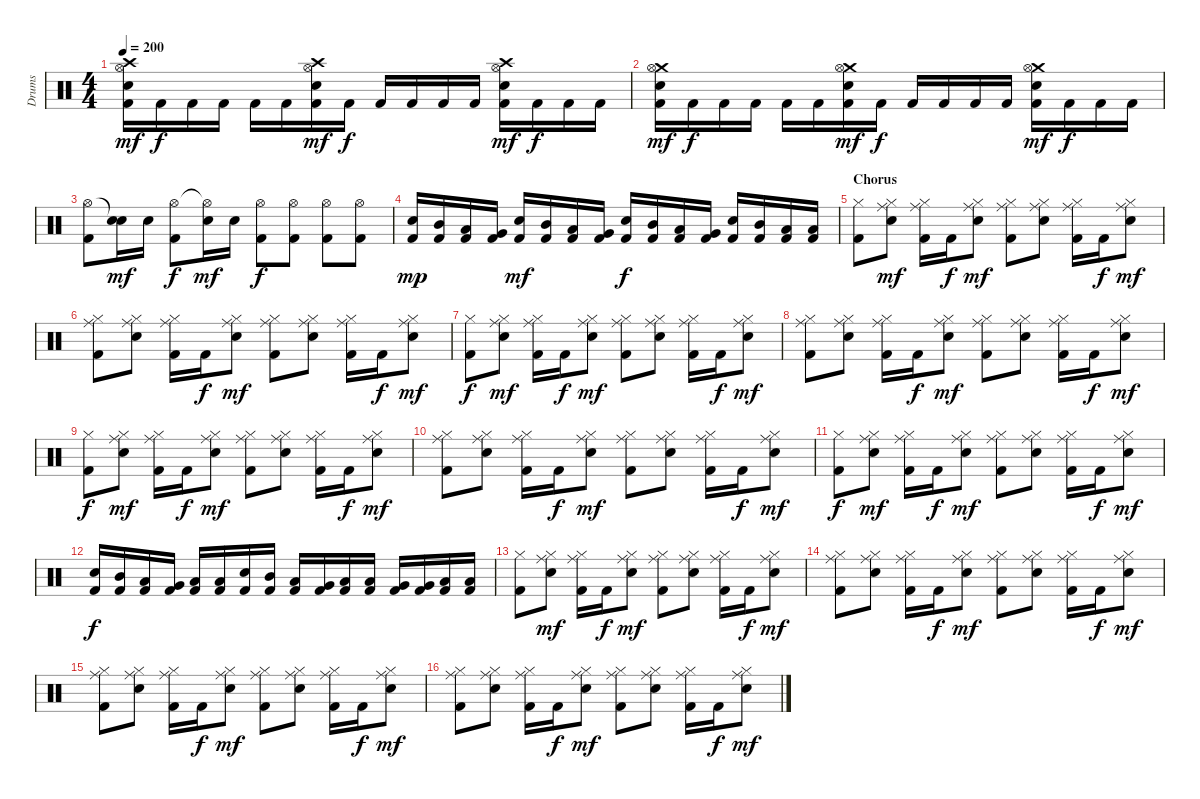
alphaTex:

\track ("Drums" "Drums") {instrument percussion}
\staff {score}
\articulation defaults
\ts (4 4)
\tempo 200
\clef neutral
\ks c
("Crash high (hit)" "Hi-Hat (open)" "Snare (hit) 2" "Kick (hit) 2").16{dy mf} "Kick (hit) 2".16{dy f} "Kick (hit) 2".16 "Kick (hit) 2".16 "Kick (hit) 2".16 "Kick (hit) 2".16 ("Crash high (hit)" "Hi-Hat (open)" "Snare (hit) 2" "Kick (hit) 2").16{dy mf} "Kick (hit) 2".16{dy f} "Kick (hit) 2".16 "Kick (hit) 2".16 "Kick (hit) 2".16 "Kick (hit) 2".16 ("Crash high (hit)" "Hi-Hat (open)" "Snare (hit) 2" "Kick (hit) 2").16{dy mf} "Kick (hit) 2".16{dy f} "Kick (hit) 2".16 "Kick (hit) 2".16 |
("Crash medium (hit)" "Hi-Hat (open)" "Snare (hit) 2" "Kick (hit) 2").16{dy mf} "Kick (hit) 2".16{dy f} "Kick (hit) 2".16 "Kick (hit) 2".16 "Kick (hit) 2".16 "Kick (hit) 2".16 ("Crash medium (hit)" "Hi-Hat (open)" "Snare (hit) 2" "Kick (hit) 2").16{dy mf} "Kick (hit) 2".16{dy f} "Kick (hit) 2".16 "Kick (hit) 2".16 "Kick (hit) 2".16 "Kick (hit) 2".16 ("Crash medium (hit)" "Hi-Hat (open)" "Snare (hit) 2" "Kick (hit) 2").16{dy mf} "Kick (hit) 2".16{dy f} "Kick (hit) 2".16 "Kick (hit) 2".16 |
("Hi-Hat (open)" "Kick (hit) 2").8 ("Snare (hit)"{t} "Snare (hit) 2").16{dy mf} "Snare (hit) 2".16 ("Hi-Hat (open)" "Kick (hit) 2").8{dy f} ("Hi-Hat (open)"{t} "Snare (hit) 2").16{dy mf} "Snare (hit) 2".16 ("Hi-Hat (open)" "Kick (hit) 2").8{dy f} ("Hi-Hat (open)" "Kick (hit) 2").8 ("Hi-Hat (open)" "Kick (hit) 2").8 ("Hi-Hat (open)" "Kick (hit) 2").8 |
("Snare (hit) 2" "Kick (hit) 2").16{dy mp} ("Mid Tom (hit)" "Kick (hit) 2").16 ("Low Tom (hit)" "Kick (hit) 2").16 ("Very Low Tom (hit)" "Kick (hit) 2").16 ("Snare (hit) 2" "Kick (hit) 2").16{dy mf} ("Mid Tom (hit)" "Kick (hit) 2").16 ("Low Tom (hit)" "Kick (hit) 2").16 ("Very Low Tom (hit)" "Kick (hit) 2").16 ("Snare (hit) 2" "Kick (hit) 2").16{dy f} ("Mid Tom (hit)" "Kick (hit) 2").16 ("Low Tom (hit)" "Kick (hit) 2").16 ("Very Low Tom (hit)" "Kick (hit) 2").16 ("Snare (hit) 2" "Kick (hit) 2").16 ("Mid Tom (hit)" "Kick (hit) 2").16 ("Low Tom (hit)" "Kick (hit) 2").16 ("Low Floor Tom (hit)" "Kick (hit) 2").16 |
\section ("" "Chorus")
("Hi-Hat (closed)" "Kick (hit) 2").8 ("Hi-Hat (closed)" "Ride (middle)" "Snare (hit) 2").8{dy mf} ("Hi-Hat (closed)" "Ride (middle)" "Kick (hit) 2").16 "Kick (hit) 2".16{dy f} ("Hi-Hat (closed)" "Ride (middle)" "Snare (hit) 2").8{dy mf} ("Hi-Hat (closed)" "Ride (middle)" "Kick (hit) 2").8 ("Hi-Hat (closed)" "Ride (middle)" "Snare (hit) 2").8 ("Hi-Hat (closed)" "Ride (middle)" "Kick (hit) 2").16 "Kick (hit) 2".16{dy f} ("Hi-Hat (closed)" "Ride (middle)" "Snare (hit) 2").8{dy mf} |
("Hi-Hat (closed)" "Ride (middle)" "Kick (hit) 2").8 ("Hi-Hat (closed)" "Ride (middle)" "Snare (hit) 2").8 ("Hi-Hat (closed)" "Ride (middle)" "Kick (hit) 2").16 "Kick (hit) 2".16{dy f} ("Hi-Hat (closed)" "Ride (middle)" "Snare (hit) 2").8{dy mf} ("Hi-Hat (closed)" "Ride (middle)" "Kick (hit) 2").8 ("Hi-Hat (closed)" "Ride (middle)" "Snare (hit) 2").8 ("Hi-Hat (closed)" "Ride (middle)" "Kick (hit) 2").16 "Kick (hit) 2".16{dy f} ("Hi-Hat (closed)" "Ride (middle)" "Snare (hit) 2").8{dy mf} |
("Hi-Hat (closed)" "Kick (hit) 2").8{dy f} ("Hi-Hat (closed)" "Ride (middle)" "Snare (hit) 2").8{dy mf} ("Hi-Hat (closed)" "Ride (middle)" "Kick (hit) 2").16 "Kick (hit) 2".16{dy f} ("Hi-Hat (closed)" "Ride (middle)" "Snare (hit) 2").8{dy mf} ("Hi-Hat (closed)" "Ride (middle)" "Kick (hit) 2").8 ("Hi-Hat (closed)" "Ride (middle)" "Snare (hit) 2").8 ("Hi-Hat (closed)" "Ride (middle)" "Kick (hit) 2").16 "Kick (hit) 2".16{dy f} ("Hi-Hat (closed)" "Ride (middle)" "Snare (hit) 2").8{dy mf} |
("Hi-Hat (closed)" "Ride (middle)" "Kick (hit) 2").8 ("Hi-Hat (closed)" "Ride (middle)" "Snare (hit) 2").8 ("Hi-Hat (closed)" "Ride (middle)" "Kick (hit) 2").16 "Kick (hit) 2".16{dy f} ("Hi-Hat (closed)" "Ride (middle)" "Snare (hit) 2").8{dy mf} ("Hi-Hat (closed)" "Ride (middle)" "Kick (hit) 2").8 ("Hi-Hat (closed)" "Ride (middle)" "Snare (hit) 2").8 ("Hi-Hat (closed)" "Ride (middle)" "Kick (hit) 2").16 "Kick (hit) 2".16{dy f} ("Hi-Hat (closed)" "Ride (middle)" "Snare (hit) 2").8{dy mf} |
("Hi-Hat (closed)" "Kick (hit) 2").8{dy f} ("Hi-Hat (closed)" "Ride (middle)" "Snare (hit) 2").8{dy mf} ("Hi-Hat (closed)" "Ride (middle)" "Kick (hit) 2").16 "Kick (hit) 2".16{dy f} ("Hi-Hat (closed)" "Ride (middle)" "Snare (hit) 2").8{dy mf} ("Hi-Hat (closed)" "Ride (middle)" "Kick (hit) 2").8 ("Hi-Hat (closed)" "Ride (middle)" "Snare (hit) 2").8 ("Hi-Hat (closed)" "Ride (middle)" "Kick (hit) 2").16 "Kick (hit) 2".16{dy f} ("Hi-Hat (closed)" "Ride (middle)" "Snare (hit) 2").8{dy mf} |
("Hi-Hat (closed)" "Ride (middle)" "Kick (hit) 2").8 ("Hi-Hat (closed)" "Ride (middle)" "Snare (hit) 2").8 ("Hi-Hat (closed)" "Ride (middle)" "Kick (hit) 2").16 "Kick (hit) 2".16{dy f} ("Hi-Hat (closed)" "Ride (middle)" "Snare (hit) 2").8{dy mf} ("Hi-Hat (closed)" "Ride (middle)" "Kick (hit) 2").8 ("Hi-Hat (closed)" "Ride (middle)" "Snare (hit) 2").8 ("Hi-Hat (closed)" "Ride (middle)" "Kick (hit) 2").16 "Kick (hit) 2".16{dy f} ("Hi-Hat (closed)" "Ride (middle)" "Snare (hit) 2").8{dy mf} |
("Hi-Hat (closed)" "Kick (hit) 2").8{dy f} ("Hi-Hat (closed)" "Ride (middle)" "Snare (hit) 2").8{dy mf} ("Hi-Hat (closed)" "Ride (middle)" "Kick (hit) 2").16 "Kick (hit) 2".16{dy f} ("Hi-Hat (closed)" "Ride (middle)" "Snare (hit) 2").8{dy mf} ("Hi-Hat (closed)" "Ride (middle)" "Kick (hit) 2").8 ("Hi-Hat (closed)" "Ride (middle)" "Snare (hit) 2").8 ("Hi-Hat (closed)" "Ride (middle)" "Kick (hit) 2").16 "Kick (hit) 2".16{dy f} ("Hi-Hat (closed)" "Ride (middle)" "Snare (hit) 2").8{dy mf} |
("Snare (hit) 2" "Kick (hit) 2").16{dy f} ("Mid Tom (hit)" "Kick (hit) 2").16 ("Low Tom (hit)" "Kick (hit) 2").16 ("Very Low Tom (hit)" "Kick (hit) 2").16 ("Low Floor Tom (hit)" "Kick (hit) 2").16 ("Low Floor Tom (hit)" "Kick (hit) 2").16 ("Snare (hit) 2" "Kick (hit) 2").16 ("Mid Tom (hit)" "Kick (hit) 2").16 ("Low Tom (hit)" "Kick (hit) 2").16 ("Very Low Tom (hit)" "Kick (hit) 2").16 ("Low Tom (hit)" "Kick (hit) 2").16 ("Low Tom (hit)" "Kick (hit) 2").16 ("Very Low Tom (hit)" "Kick (hit) 2").16 ("Very Low Tom (hit)" "Kick (hit) 2").16 ("Low Floor Tom (hit)" "Kick (hit) 2").16 ("Low Floor Tom (hit)" "Kick (hit) 2").16 |
("Hi-Hat (closed)" "Kick (hit) 2").8 ("Hi-Hat (closed)" "Ride (middle)" "Snare (hit) 2").8{dy mf} ("Hi-Hat (closed)" "Ride (middle)" "Kick (hit) 2").16 "Kick (hit) 2".16{dy f} ("Hi-Hat (closed)" "Ride (middle)" "Snare (hit) 2").8{dy mf} ("Hi-Hat (closed)" "Ride (middle)" "Kick (hit) 2").8 ("Hi-Hat (closed)" "Ride (middle)" "Snare (hit) 2").8 ("Hi-Hat (closed)" "Ride (middle)" "Kick (hit) 2").16 "Kick (hit) 2".16{dy f} ("Hi-Hat (closed)" "Ride (middle)" "Snare (hit) 2").8{dy mf} |
("Hi-Hat (closed)" "Ride (middle)" "Kick (hit) 2").8 ("Hi-Hat (closed)" "Ride (middle)" "Snare (hit) 2").8 ("Hi-Hat (closed)" "Ride (middle)" "Kick (hit) 2").16 "Kick (hit) 2".16{dy f} ("Hi-Hat (closed)" "Ride (middle)" "Snare (hit) 2").8{dy mf} ("Hi-Hat (closed)" "Ride (middle)" "Kick (hit) 2").8 ("Hi-Hat (closed)" "Ride (middle)" "Snare (hit) 2").8 ("Hi-Hat (closed)" "Ride (middle)" "Kick (hit) 2").16 "Kick (hit) 2".16{dy f} ("Hi-Hat (closed)" "Ride (middle)" "Snare (hit) 2").8{dy mf} |
("Hi-Hat (closed)" "Ride (middle)" "Kick (hit) 2").8 ("Hi-Hat (closed)" "Ride (middle)" "Snare (hit) 2").8 ("Hi-Hat (closed)" "Ride (middle)" "Kick (hit) 2").16 "Kick (hit) 2".16{dy f} ("Hi-Hat (closed)" "Ride (middle)" "Snare (hit) 2").8{dy mf} ("Hi-Hat (closed)" "Ride (middle)" "Kick (hit) 2").8 ("Hi-Hat (closed)" "Ride (middle)" "Snare (hit) 2").8 ("Hi-Hat (closed)" "Ride (middle)" "Kick (hit) 2").16 "Kick (hit) 2".16{dy f} ("Hi-Hat (closed)" "Ride (middle)" "Snare (hit) 2").8{dy mf} |
("Hi-Hat (closed)" "Ride (middle)" "Kick (hit) 2").8 ("Hi-Hat (closed)" "Ride (middle)" "Snare (hit) 2").8 ("Hi-Hat (closed)" "Ride (middle)" "Kick (hit) 2").16 "Kick (hit) 2".16{dy f} ("Hi-Hat (closed)" "Ride (middle)" "Snare (hit) 2").8{dy mf} ("Hi-Hat (closed)" "Ride (middle)" "Kick (hit) 2").8 ("Hi-Hat (closed)" "Ride (middle)" "Snare (hit) 2").8 ("Hi-Hat (closed)" "Ride (middle)" "Kick (hit) 2").16 "Kick (hit) 2".16{dy f} ("Hi-Hat (closed)" "Ride (middle)" "Snare (hit) 2").8{dy mf}
